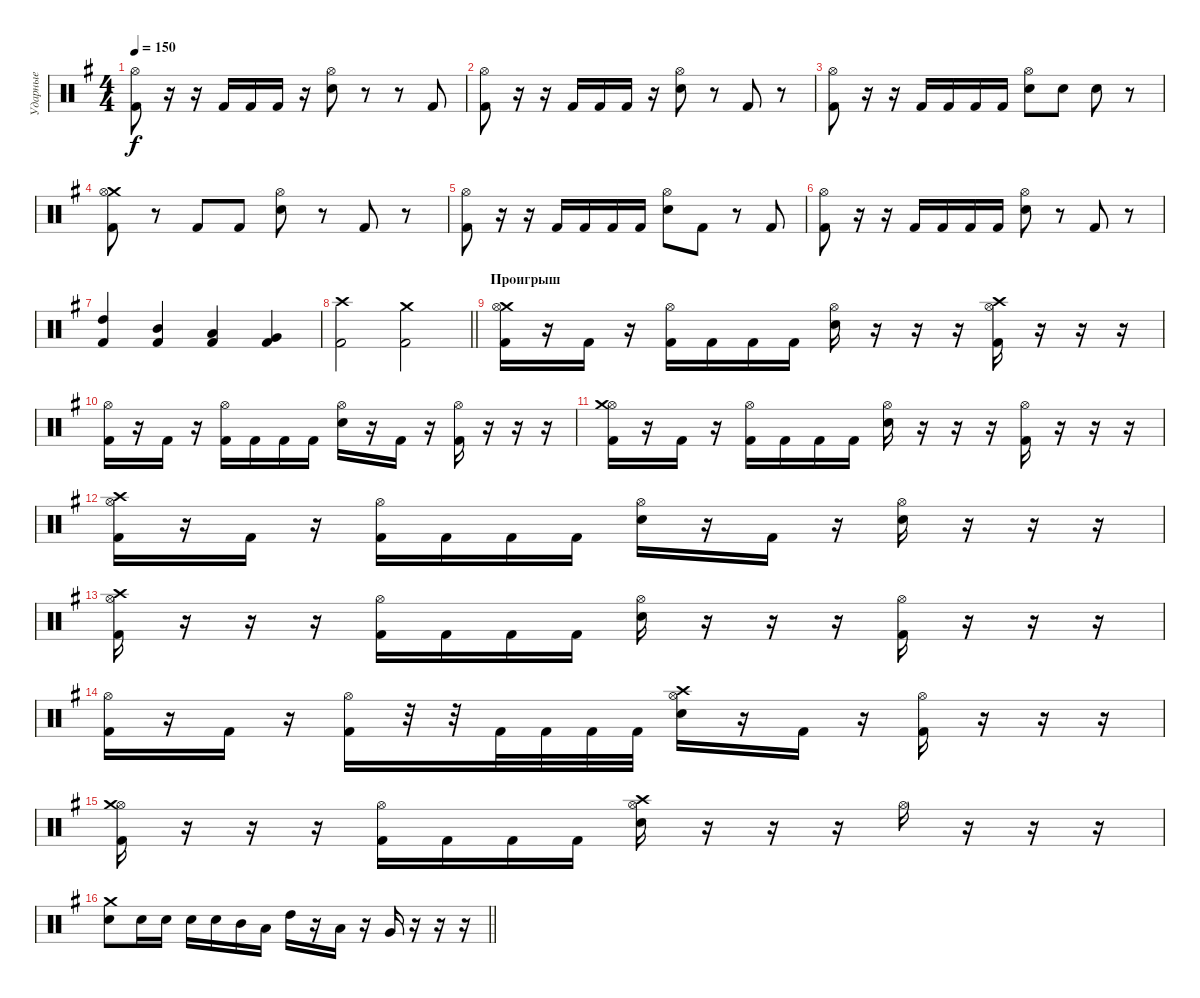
\track ("Ударные" "Ударные") {instrument percussion}
\staff {score}
\articulation defaults
\ts (4 4)
\tempo 150
\clef neutral
\ks eminor
("Kick (hit) 2" "Hi-Hat (open)").8{dy f} r.16 r.16 "Kick (hit) 2".16 "Kick (hit) 2".16 "Kick (hit) 2".16 r.16 ("Electric Snare (hit)" "Hi-Hat (open)").8 r.8 r.8 "Kick (hit) 2".8 |
("Kick (hit) 2" "Hi-Hat (open)").8 r.16 r.16 "Kick (hit) 2".16 "Kick (hit) 2".16 "Kick (hit) 2".16 r.16 ("Electric Snare (hit)" "Hi-Hat (open)").8 r.8 "Kick (hit) 2".8 r.8 |
("Kick (hit) 2" "Hi-Hat (open)").8 r.16 r.16 "Kick (hit) 2".16 "Kick (hit) 2".16 "Kick (hit) 2".16 "Kick (hit) 2".16 ("Electric Snare (hit)" "Hi-Hat (open)").8 "Electric Snare (hit)".8 "Electric Snare (hit)".8 r.8 |
("Crash medium (hit)" "Kick (hit) 2" "Hi-Hat (open)").8 r.8 "Kick (hit) 2".8 "Kick (hit) 2".8 ("Electric Snare (hit)" "Hi-Hat (open)").8 r.8 "Kick (hit) 2".8 r.8 |
("Kick (hit) 2" "Hi-Hat (open)").8 r.16 r.16 "Kick (hit) 2".16 "Kick (hit) 2".16 "Kick (hit) 2".16 "Kick (hit) 2".16 ("Electric Snare (hit)" "Hi-Hat (open)").8 "Kick (hit) 2".8 r.8 "Kick (hit) 2".8 |
("Kick (hit) 2" "Hi-Hat (open)").8 r.16 r.16 "Kick (hit) 2".16 "Kick (hit) 2".16 "Kick (hit) 2".16 "Kick (hit) 2".16 ("Electric Snare (hit)" "Hi-Hat (open)").8 r.8 "Kick (hit) 2".8 r.8 |
("High Tom (hit)" "Kick (hit) 2").4 ("Mid Tom (hit)" "Kick (hit) 2").4 ("Low Tom (hit)" "Kick (hit) 2").4 ("Very Low Tom (hit)" "Kick (hit) 2").4 |
\barLineRight lightlight
("Crash high (hit)" "Kick (hit) 2").2 ("Crash medium (hit)" "Kick (hit) 2").2 |
\section ("" "Проигрыш")
("Crash medium (hit)" "Kick (hit) 2" "Hi-Hat (open)").16 r.16 "Kick (hit) 2".16 r.16 ("Kick (hit) 2" "Hi-Hat (open)").16 "Kick (hit) 2".16 "Kick (hit) 2".16 "Kick (hit) 2".16 ("Electric Snare (hit)" "Hi-Hat (open)").16 r.16 r.16 r.16 ("Crash high (hit)" "Kick (hit) 2" "Hi-Hat (open)").16 r.16 r.16 r.16 |
("Kick (hit) 2" "Hi-Hat (open)").16 r.16 "Kick (hit) 2".16 r.16 ("Kick (hit) 2" "Hi-Hat (open)").16 "Kick (hit) 2".16 "Kick (hit) 2".16 "Kick (hit) 2".16 ("Electric Snare (hit)" "Hi-Hat (open)").16 r.16 "Kick (hit) 2".16 r.16 ("Kick (hit) 2" "Hi-Hat (open)").16 r.16 r.16 r.16 |
("Kick (hit) 2" "Hi-Hat (open)" "Crash medium (hit)").16 r.16 "Kick (hit) 2".16 r.16 ("Kick (hit) 2" "Hi-Hat (open)").16 "Kick (hit) 2".16 "Kick (hit) 2".16 "Kick (hit) 2".16 ("Electric Snare (hit)" "Hi-Hat (open)").16 r.16 r.16 r.16 ("Kick (hit) 2" "Hi-Hat (open)").16 r.16 r.16 r.16 |
("Kick (hit) 2" "Hi-Hat (open)" "Crash high (hit)").16 r.16 "Kick (hit) 2".16 r.16 ("Kick (hit) 2" "Hi-Hat (open)").16 "Kick (hit) 2".16 "Kick (hit) 2".16 "Kick (hit) 2".16 ("Electric Snare (hit)" "Hi-Hat (open)").16 r.16 "Kick (hit) 2".16 r.16 ("Electric Snare (hit)" "Hi-Hat (open)").16 r.16 r.16 r.16 |
("Crash high (hit)" "Kick (hit) 2" "Hi-Hat (open)").16 r.16 r.16 r.16 ("Kick (hit) 2" "Hi-Hat (open)").16 "Kick (hit) 2".16 "Kick (hit) 2".16 "Kick (hit) 2".16 ("Electric Snare (hit)" "Hi-Hat (open)").16 r.16 r.16 r.16 ("Kick (hit) 2" "Hi-Hat (open)").16 r.16 r.16 r.16 |
("Kick (hit) 2" "Hi-Hat (open)").16 r.16 "Kick (hit) 2".16 r.16 ("Kick (hit) 2" "Hi-Hat (open)").16 r.32 r.32 "Kick (hit) 2".32 "Kick (hit) 2".32 "Kick (hit) 2".32 "Kick (hit) 2".32 ("Crash high (hit)" "Electric Snare (hit)" "Hi-Hat (open)").16 r.16 "Kick (hit) 2".16 r.16 ("Kick (hit) 2" "Hi-Hat (open)").16 r.16 r.16 r.16 |
("Kick (hit) 2" "Hi-Hat (open)" "Crash medium (hit)").16 r.16 r.16 r.16 ("Kick (hit) 2" "Hi-Hat (open)").16 "Kick (hit) 2".16 "Kick (hit) 2".16 "Kick (hit) 2".16 ("Crash high (hit)" "Electric Snare (hit)" "Hi-Hat (open)").16 r.16 r.16 r.16 "Hi-Hat (open)".16 r.16 r.16 r.16 |
\barLineRight lightlight
("Crash medium (hit)" "Electric Snare (hit)").8 "Electric Snare (hit)".16 "Electric Snare (hit)".16 "Electric Snare (hit)".16 "Electric Snare (hit)".16 "Mid Tom (hit)".16 "Low Tom (hit)".16 "High Tom (hit)".16 r.16 "Low Tom (hit)".16 r.16 "Very Low Tom (hit)".16 r.16 r.16 r.16
